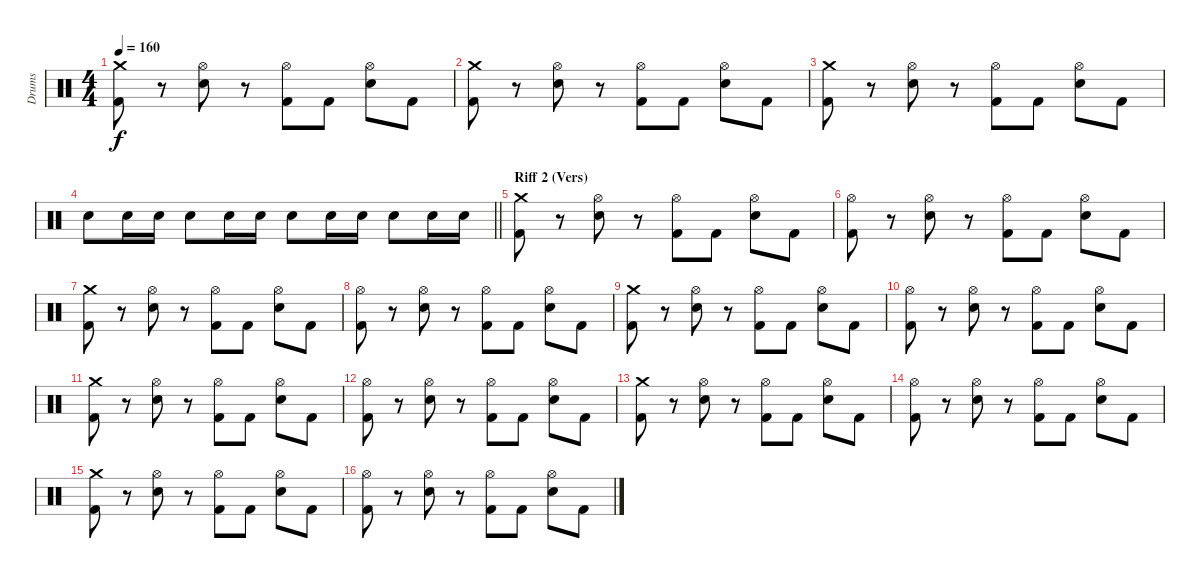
\track ("Drums" "Drums") {instrument percussion}
\staff {score}
\articulation defaults
\ts (4 4)
\tempo 160
\clef neutral
\ks c
("Crash medium (hit)" "Kick (hit) 2").8{dy f} r.8 ("Hi-Hat (open)" "Snare (hit) 2").8 r.8 ("Hi-Hat (open)" "Kick (hit) 2").8 "Kick (hit) 2".8 ("Hi-Hat (open)" "Snare (hit) 2").8 "Kick (hit) 2".8 |
("Crash medium (hit)" "Kick (hit) 2").8 r.8 ("Hi-Hat (open)" "Snare (hit) 2").8 r.8 ("Hi-Hat (open)" "Kick (hit) 2").8 "Kick (hit) 2".8 ("Hi-Hat (open)" "Snare (hit) 2").8 "Kick (hit) 2".8 |
("Crash medium (hit)" "Kick (hit) 2").8 r.8 ("Hi-Hat (open)" "Snare (hit) 2").8 r.8 ("Hi-Hat (open)" "Kick (hit) 2").8 "Kick (hit) 2".8 ("Hi-Hat (open)" "Snare (hit) 2").8 "Kick (hit) 2".8 |
\barLineRight lightlight "Snare (hit) 2".8 "Snare (hit) 2".16 "Snare (hit) 2".16 "Snare (hit) 2".8 "Snare (hit) 2".16 "Snare (hit) 2".16 "Snare (hit) 2".8 "Snare (hit) 2".16 "Snare (hit) 2".16 "Snare (hit) 2".8 "Snare (hit) 2".16 "Snare (hit) 2".16
|
\section ("" "Riff 2 (Vers)")
("Crash medium (hit)" "Kick (hit) 2").8 r.8 ("Hi-Hat (open)" "Snare (hit) 2").8 r.8 ("Hi-Hat (open)" "Kick (hit) 2").8 "Kick (hit) 2".8 ("Hi-Hat (open)" "Snare (hit) 2").8 "Kick (hit) 2".8 |
("Hi-Hat (open)" "Kick (hit) 2").8 r.8 ("Hi-Hat (open)" "Snare (hit) 2").8 r.8 ("Hi-Hat (open)" "Kick (hit) 2").8 "Kick (hit) 2".8 ("Hi-Hat (open)" "Snare (hit) 2").8 "Kick (hit) 2".8 |
("Crash medium (hit)" "Kick (hit) 2").8 r.8 ("Hi-Hat (open)" "Snare (hit) 2").8 r.8 ("Hi-Hat (open)" "Kick (hit) 2").8 "Kick (hit) 2".8 ("Hi-Hat (open)" "Snare (hit) 2").8 "Kick (hit) 2".8 |
("Hi-Hat (open)" "Kick (hit) 2").8 r.8 ("Hi-Hat (open)" "Snare (hit) 2").8 r.8 ("Hi-Hat (open)" "Kick (hit) 2").8 "Kick (hit) 2".8 ("Hi-Hat (open)" "Snare (hit) 2").8 "Kick (hit) 2".8 |
("Crash medium (hit)" "Kick (hit) 2").8 r.8 ("Hi-Hat (open)" "Snare (hit) 2").8 r.8 ("Hi-Hat (open)" "Kick (hit) 2").8 "Kick (hit) 2".8 ("Hi-Hat (open)" "Snare (hit) 2").8 "Kick (hit) 2".8 |
("Hi-Hat (open)" "Kick (hit) 2").8 r.8 ("Hi-Hat (open)" "Snare (hit) 2").8 r.8 ("Hi-Hat (open)" "Kick (hit) 2").8 "Kick (hit) 2".8 ("Hi-Hat (open)" "Snare (hit) 2").8 "Kick (hit) 2".8 |
("Crash medium (hit)" "Kick (hit) 2").8 r.8 ("Hi-Hat (open)" "Snare (hit) 2").8 r.8 ("Hi-Hat (open)" "Kick (hit) 2").8 "Kick (hit) 2".8 ("Hi-Hat (open)" "Snare (hit) 2").8 "Kick (hit) 2".8 |
("Hi-Hat (open)" "Kick (hit) 2").8 r.8 ("Hi-Hat (open)" "Snare (hit) 2").8 r.8 ("Hi-Hat (open)" "Kick (hit) 2").8 "Kick (hit) 2".8 ("Hi-Hat (open)" "Snare (hit) 2").8 "Kick (hit) 2".8 |
("Crash medium (hit)" "Kick (hit) 2").8 r.8 ("Hi-Hat (open)" "Snare (hit) 2").8 r.8 ("Hi-Hat (open)" "Kick (hit) 2").8 "Kick (hit) 2".8 ("Hi-Hat (open)" "Snare (hit) 2").8 "Kick (hit) 2".8 |
("Hi-Hat (open)" "Kick (hit) 2").8 r.8 ("Hi-Hat (open)" "Snare (hit) 2").8 r.8 ("Hi-Hat (open)" "Kick (hit) 2").8 "Kick (hit) 2".8 ("Hi-Hat (open)" "Snare (hit) 2").8 "Kick (hit) 2".8 |
("Crash medium (hit)" "Kick (hit) 2").8 r.8 ("Hi-Hat (open)" "Snare (hit) 2").8 r.8 ("Hi-Hat (open)" "Kick (hit) 2").8 "Kick (hit) 2".8 ("Hi-Hat (open)" "Snare (hit) 2").8 "Kick (hit) 2".8 |
("Hi-Hat (open)" "Kick (hit) 2").8 r.8 ("Hi-Hat (open)" "Snare (hit) 2").8 r.8 ("Hi-Hat (open)" "Kick (hit) 2").8 "Kick (hit) 2".8 ("Hi-Hat (open)" "Snare (hit) 2").8 "Kick (hit) 2".8
